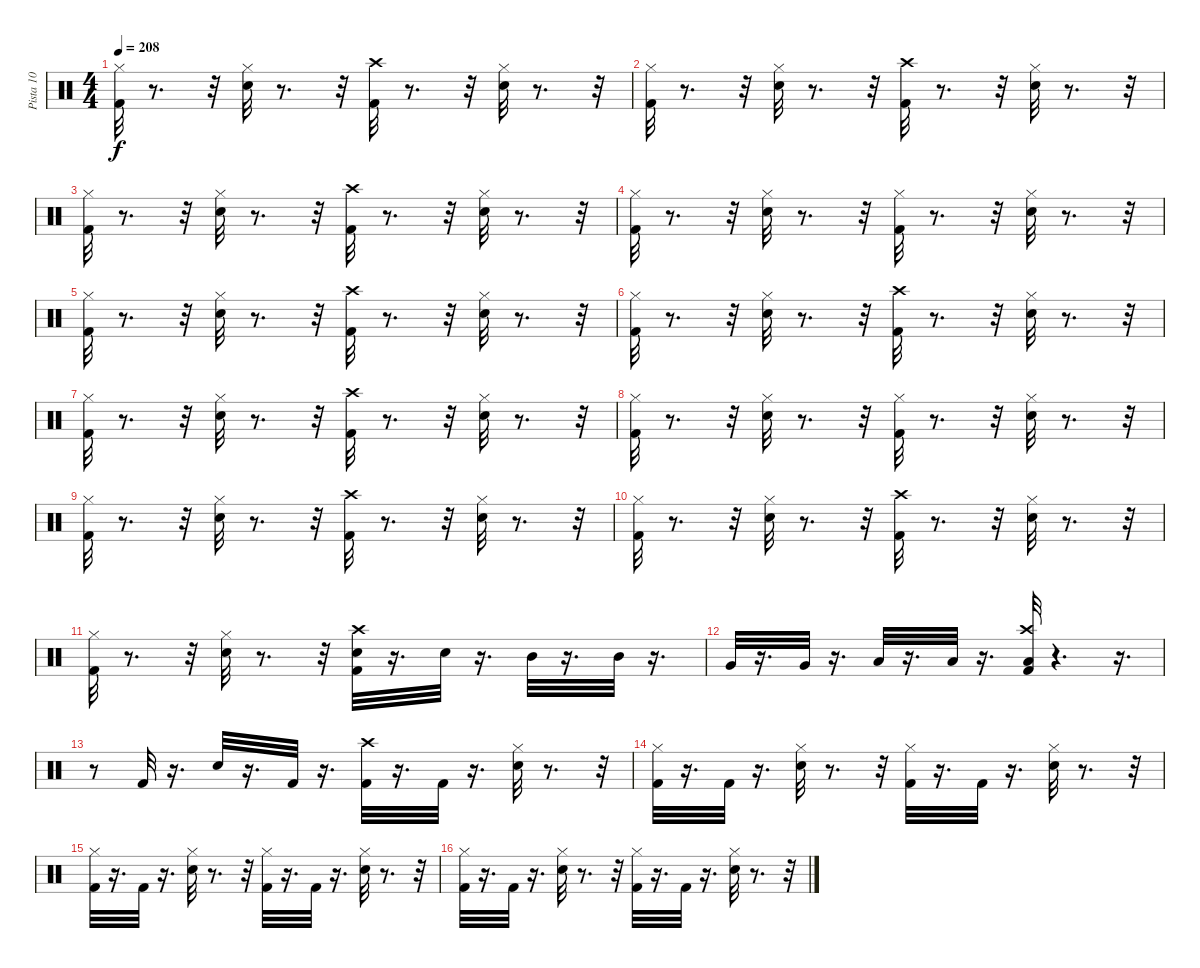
\track ("Pista 10" "Pista 10") {instrument percussion}
\staff {score}
\articulation defaults
\ts (4 4)
\tempo 208
\clef neutral
\ks c
("Kick (hit) 2" "Hi-Hat (closed)").32{dy f} r.8{d} r.32 ("Snare (hit) 2" "Hi-Hat (closed)").32 r.8{d} r.32 ("Crash high (hit)" "Kick (hit) 2").32 r.8{d} r.32 ("Snare (hit) 2" "Hi-Hat (closed)").32 r.8{d} r.32 |
("Kick (hit) 2" "Hi-Hat (closed)").32 r.8{d} r.32 ("Snare (hit) 2" "Hi-Hat (closed)").32 r.8{d} r.32 ("Crash high (hit)" "Kick (hit) 2").32 r.8{d} r.32 ("Snare (hit) 2" "Hi-Hat (closed)").32 r.8{d} r.32 |
("Kick (hit) 2" "Hi-Hat (closed)").32 r.8{d} r.32 ("Snare (hit) 2" "Hi-Hat (closed)").32 r.8{d} r.32 ("Crash high (hit)" "Kick (hit) 2").32 r.8{d} r.32 ("Snare (hit) 2" "Hi-Hat (closed)").32 r.8{d} r.32 |
("Kick (hit) 2" "Hi-Hat (closed)").32 r.8{d} r.32 ("Snare (hit) 2" "Hi-Hat (closed)").32 r.8{d} r.32 ("Kick (hit) 2" "Hi-Hat (closed)").32 r.8{d} r.32 ("Snare (hit) 2" "Hi-Hat (closed)").32 r.8{d} r.32 |
("Kick (hit) 2" "Hi-Hat (closed)").32 r.8{d} r.32 ("Snare (hit) 2" "Hi-Hat (closed)").32 r.8{d} r.32 ("Crash high (hit)" "Kick (hit) 2").32 r.8{d} r.32 ("Snare (hit) 2" "Hi-Hat (closed)").32 r.8{d} r.32 |
("Kick (hit) 2" "Hi-Hat (closed)").32 r.8{d} r.32 ("Snare (hit) 2" "Hi-Hat (closed)").32 r.8{d} r.32 ("Crash high (hit)" "Kick (hit) 2").32 r.8{d} r.32 ("Snare (hit) 2" "Hi-Hat (closed)").32 r.8{d} r.32 |
("Kick (hit) 2" "Hi-Hat (closed)").32 r.8{d} r.32 ("Snare (hit) 2" "Hi-Hat (closed)").32 r.8{d} r.32 ("Crash high (hit)" "Kick (hit) 2").32 r.8{d} r.32 ("Snare (hit) 2" "Hi-Hat (closed)").32 r.8{d} r.32 |
("Kick (hit) 2" "Hi-Hat (closed)").32 r.8{d} r.32 ("Snare (hit) 2" "Hi-Hat (closed)").32 r.8{d} r.32 ("Kick (hit) 2" "Hi-Hat (closed)").32 r.8{d} r.32 ("Snare (hit) 2" "Hi-Hat (closed)").32 r.8{d} r.32 |
("Kick (hit) 2" "Hi-Hat (closed)").32 r.8{d} r.32 ("Snare (hit) 2" "Hi-Hat (closed)").32 r.8{d} r.32 ("Crash high (hit)" "Kick (hit) 2").32 r.8{d} r.32 ("Snare (hit) 2" "Hi-Hat (closed)").32 r.8{d} r.32 |
("Kick (hit) 2" "Hi-Hat (closed)").32 r.8{d} r.32 ("Snare (hit) 2" "Hi-Hat (closed)").32 r.8{d} r.32 ("Crash high (hit)" "Kick (hit) 2").32 r.8{d} r.32 ("Snare (hit) 2" "Hi-Hat (closed)").32 r.8{d} r.32 |
("Kick (hit) 2" "Hi-Hat (closed)").32 r.8{d} r.32 ("Snare (hit) 2" "Hi-Hat (closed)").32 r.8{d} r.32 ("Crash high (hit)" "Snare (hit) 2" "Kick (hit) 2").32 r.16{d} "Snare (hit) 2".32 r.16{d} "Mid Tom (hit)".32 r.16{d} "Mid Tom (hit)".32 r.16{d} |
"Very Low Tom (hit)".32 r.16{d} "Very Low Tom (hit)".32 r.16{d} "Low Floor Tom (hit)".32 r.16{d} "Low Floor Tom (hit)".32 r.16{d} ("Low Floor Tom (hit)" "Crash high (hit)" "Kick (hit) 2").32 r.4{d} r.16{d} |
r.8 "Kick (hit) 2".32 r.16{d} "Snare (hit) 2".32 r.16{d} "Kick (hit) 2".32 r.16{d} ("Kick (hit) 2" "Crash high (hit)").32 r.16{d} "Kick (hit) 2".32 r.16{d} ("Snare (hit) 2" "Hi-Hat (closed)").32 r.8{d} r.32 |
("Kick (hit) 2" "Hi-Hat (closed)").32 r.16{d} "Kick (hit) 2".32 r.16{d} ("Snare (hit) 2" "Hi-Hat (closed)").32 r.8{d} r.32 ("Kick (hit) 2" "Hi-Hat (closed)").32 r.16{d} "Kick (hit) 2".32 r.16{d} ("Snare (hit) 2" "Hi-Hat (closed)").32 r.8{d} r.32 |
("Kick (hit) 2" "Hi-Hat (closed)").32 r.16{d} "Kick (hit) 2".32 r.16{d} ("Snare (hit) 2" "Hi-Hat (closed)").32 r.8{d} r.32 ("Kick (hit) 2" "Hi-Hat (closed)").32 r.16{d} "Kick (hit) 2".32 r.16{d} ("Snare (hit) 2" "Hi-Hat (closed)").32 r.8{d} r.32 |
("Kick (hit) 2" "Hi-Hat (closed)").32 r.16{d} "Kick (hit) 2".32 r.16{d} ("Snare (hit) 2" "Hi-Hat (closed)").32 r.8{d} r.32 ("Kick (hit) 2" "Hi-Hat (closed)").32 r.16{d} "Kick (hit) 2".32 r.16{d} ("Snare (hit) 2" "Hi-Hat (closed)").32 r.8{d} r.32
